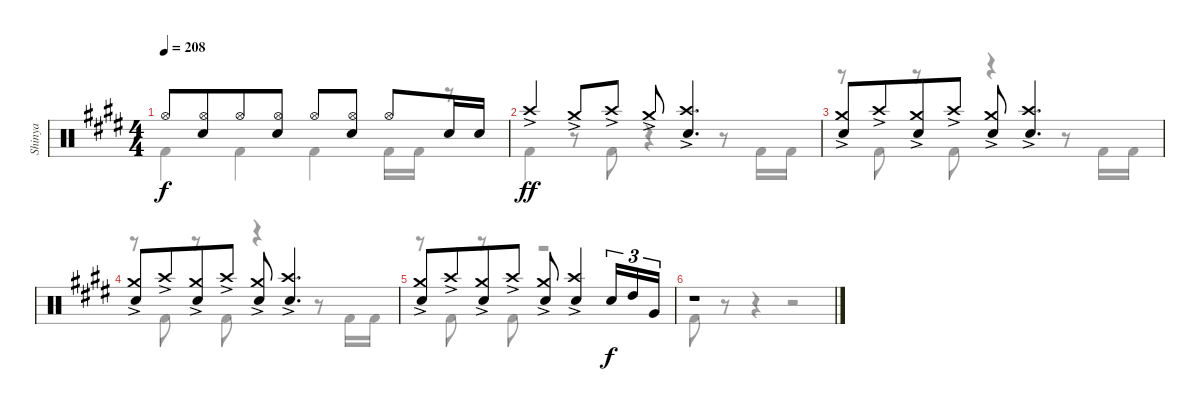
\track ("Shinya" "Shinya") {instrument percussion}
\staff {score}
\articulation defaults
\voice
\ts (4 4)
\tempo 208
\clef neutral
\ks c#minor "Hi-Hat (open)".8{dy f}
("Hi-Hat (open)" "Snare (hit) 2").8{beam merge} "Hi-Hat (open)".8 ("Hi-Hat (open)" "Snare (hit) 2").8 "Hi-Hat (open)".8 ("Hi-Hat (open)" "Snare (hit) 2").8{beam split} "Hi-Hat (open)".8 "Snare (hit) 2".16 "Snare (hit) 2".16 |
"Crash high (hit)"{ac}.4{dy ff} "Crash medium (hit)"{ac}.8 "Crash high (hit)"{ac}.8 "Crash medium (hit)"{ac}.8 ("Crash high (hit)"{ac} "Snare (hit) 2").4{d} |
("Crash medium (hit)"{ac} "Snare (hit) 2").8 "Crash high (hit)"{ac}.8{beam merge} ("Crash medium (hit)"{ac} "Snare (hit) 2").8 "Crash high (hit)"{ac}.8 ("Crash medium (hit)"{ac} "Snare (hit) 2").8 ("Crash high (hit)"{ac} "Snare (hit) 2").4{d} |
("Crash medium (hit)"{ac} "Snare (hit) 2").8 "Crash high (hit)"{ac}.8{beam merge} ("Crash medium (hit)"{ac} "Snare (hit) 2").8 "Crash high (hit)"{ac}.8 ("Crash medium (hit)"{ac} "Snare (hit) 2").8 ("Crash high (hit)"{ac} "Snare (hit) 2").4{d} |
("Crash medium (hit)"{ac} "Snare (hit) 2").8 "Crash high (hit)"{ac}.8{beam merge} ("Crash medium (hit)"{ac} "Snare (hit) 2").8 "Crash high (hit)"{ac}.8 ("Crash medium (hit)"{ac} "Snare (hit) 2").8 ("Crash high (hit)"{ac} "Snare (hit) 2").4 "Snare (hit) 2".16{tu (3 2) dy f} "High Tom (hit)".16{tu (3 2)} "Very Low Tom (hit)".16{tu (3 2)} |
r.1
\voice
\clef neutral
\ottava regular
\simile none
\ks c#minor "Kick (hit) 2".4{dy f} "Kick (hit) 2".4 "Kick (hit) 2".4 "Kick (hit) 2".16 "Kick (hit) 2".16
r.8 |
"Kick (hit) 2".4 r.8 "Kick (hit) 2".8 r.4 r.8 "Kick (hit) 2".16 "Kick (hit) 2".16 |
r.8 "Kick (hit) 2".8 r.8 "Kick (hit) 2".8 r.4 r.8 "Kick (hit) 2".16 "Kick (hit) 2".16 |
r.8 "Kick (hit) 2".8 r.8 "Kick (hit) 2".8 r.4 r.8 "Kick (hit) 2".16 "Kick (hit) 2".16 |
r.8 "Kick (hit) 2".8 r.8 "Kick (hit) 2".8 r.2 |
"Kick (hit) 2".8 r.8 r.4 r.2
